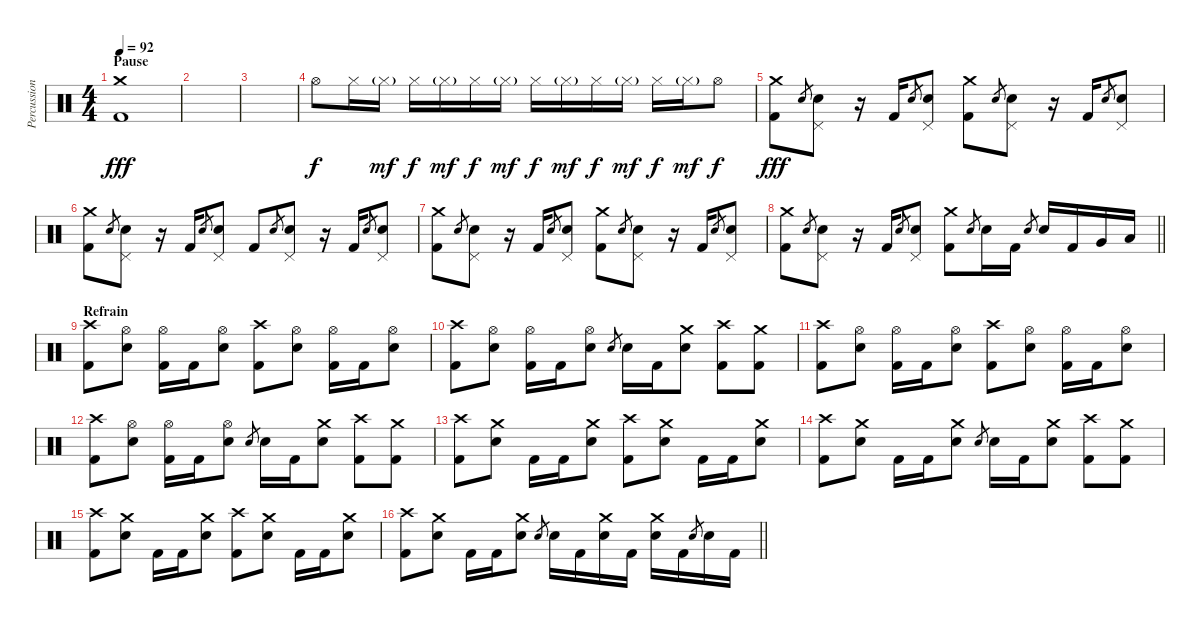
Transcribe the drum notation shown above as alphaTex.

\track ("Percussions" "Percussion") {instrument percussion}
\staff {score}
\articulation defaults
\ts (4 4)
\section ("" "Pause")
\tempo 92
\clef neutral
\ks c
("Crash medium (hit)" "Kick (hit) 2").1{dy fff} |
|
|
"Hi-Hat (open)".8{dy f} "Hi-Hat (closed)".16 "Hi-Hat (closed)"{g}.16{dy mf} "Hi-Hat (closed)".16{dy f} "Hi-Hat (closed)"{g}.16{dy mf} "Hi-Hat (closed)".16{dy f} "Hi-Hat (closed)"{g}.16{dy mf} "Hi-Hat (closed)".16{dy f} "Hi-Hat (closed)"{g}.16{dy mf} "Hi-Hat (closed)".16{dy f} "Hi-Hat (closed)"{g}.16{dy mf} "Hi-Hat (closed)".16{dy f} "Hi-Hat (closed)"{g}.16{dy mf} "Hi-Hat (open)".8{dy f} |
("Crash medium (hit)" "Kick (hit) 2").8{dy fff} "Electric Snare (hit)".8{gr} ("Electric Snare (hit)" "Pedal Hi-Hat (hit)").8 r.16 "Kick (hit) 2".16 "Electric Snare (hit)".8{gr} ("Electric Snare (hit)" "Pedal Hi-Hat (hit)").8 ("Crash medium (hit)" "Kick (hit) 2").8 "Electric Snare (hit)".8{gr} ("Electric Snare (hit)" "Pedal Hi-Hat (hit)").8 r.16 "Kick (hit) 2".16 "Electric Snare (hit)".8{gr} ("Electric Snare (hit)" "Pedal Hi-Hat (hit)").8 |
("Crash medium (hit)" "Kick (hit) 2").8 "Electric Snare (hit)".8{gr} ("Electric Snare (hit)" "Pedal Hi-Hat (hit)").8 r.16 "Kick (hit) 2".16 "Electric Snare (hit)".8{gr} ("Electric Snare (hit)" "Pedal Hi-Hat (hit)").8 "Kick (hit) 2".8 "Electric Snare (hit)".8{gr} ("Electric Snare (hit)" "Pedal Hi-Hat (hit)").8 r.16 "Kick (hit) 2".16 "Electric Snare (hit)".8{gr} ("Electric Snare (hit)" "Pedal Hi-Hat (hit)").8 |
("Crash medium (hit)" "Kick (hit) 2").8 "Electric Snare (hit)".8{gr} ("Electric Snare (hit)" "Pedal Hi-Hat (hit)").8 r.16 "Kick (hit) 2".16 "Electric Snare (hit)".8{gr} ("Electric Snare (hit)" "Pedal Hi-Hat (hit)").8 ("Crash medium (hit)" "Kick (hit) 2").8 "Electric Snare (hit)".8{gr} ("Electric Snare (hit)" "Pedal Hi-Hat (hit)").8 r.16 "Kick (hit) 2".16 "Electric Snare (hit)".8{gr} ("Electric Snare (hit)" "Pedal Hi-Hat (hit)").8 |
\barLineRight lightlight
("Crash medium (hit)" "Kick (hit) 2").8 "Electric Snare (hit)".8{gr} ("Electric Snare (hit)" "Pedal Hi-Hat (hit)").8 r.16 "Kick (hit) 2".16 "Electric Snare (hit)".8{gr} ("Electric Snare (hit)" "Pedal Hi-Hat (hit)").8 ("Crash medium (hit)" "Kick (hit) 2").8 "Electric Snare (hit)".8{gr} "Electric Snare (hit)".16 "Kick (hit) 2".16 "Electric Snare (hit)".8{gr} "Electric Snare (hit)".16 "Kick (hit) 2".16 "Very Low Tom (hit)".16 "Low Floor Tom (hit)".16 |
\section ("" "Refrain")
("Crash high (hit)" "Kick (hit) 2").8 ("Hi-Hat (open)" "Electric Snare (hit)").8 ("Hi-Hat (open)" "Kick (hit) 2").16 "Kick (hit) 2".16 ("Hi-Hat (open)" "Electric Snare (hit)").8 ("Crash high (hit)" "Kick (hit) 2").8 ("Hi-Hat (open)" "Electric Snare (hit)").8 ("Hi-Hat (open)" "Kick (hit) 2").16 "Kick (hit) 2".16 ("Hi-Hat (open)" "Electric Snare (hit)").8 |
("Crash high (hit)" "Kick (hit) 2").8 ("Hi-Hat (open)" "Electric Snare (hit)").8 ("Hi-Hat (open)" "Kick (hit) 2").16 "Kick (hit) 2".16 ("Hi-Hat (open)" "Electric Snare (hit)").8 "Electric Snare (hit)".8{gr} "Electric Snare (hit)".16 "Kick (hit) 2".16 ("Crash medium (hit)" "Electric Snare (hit)").8 ("Crash high (hit)" "Kick (hit) 2").8 ("Crash medium (hit)" "Kick (hit) 2").8 |
("Crash high (hit)" "Kick (hit) 2").8 ("Hi-Hat (open)" "Electric Snare (hit)").8 ("Hi-Hat (open)" "Kick (hit) 2").16 "Kick (hit) 2".16 ("Hi-Hat (open)" "Electric Snare (hit)").8 ("Crash high (hit)" "Kick (hit) 2").8 ("Hi-Hat (open)" "Electric Snare (hit)").8 ("Hi-Hat (open)" "Kick (hit) 2").16 "Kick (hit) 2".16 ("Hi-Hat (open)" "Electric Snare (hit)").8 |
("Crash high (hit)" "Kick (hit) 2").8 ("Hi-Hat (open)" "Electric Snare (hit)").8 ("Hi-Hat (open)" "Kick (hit) 2").16 "Kick (hit) 2".16 ("Hi-Hat (open)" "Electric Snare (hit)").8 "Electric Snare (hit)".8{gr} "Electric Snare (hit)".16 "Kick (hit) 2".16 ("Crash medium (hit)" "Electric Snare (hit)").8 ("Crash high (hit)" "Kick (hit) 2").8 ("Crash medium (hit)" "Kick (hit) 2").8 |
("Crash high (hit)" "Kick (hit) 2").8 ("Crash medium (hit)" "Electric Snare (hit)").8 "Kick (hit) 2".16 "Kick (hit) 2".16 ("Crash medium (hit)" "Electric Snare (hit)").8 ("Crash high (hit)" "Kick (hit) 2").8 ("Crash medium (hit)" "Electric Snare (hit)").8 "Kick (hit) 2".16 "Kick (hit) 2".16 ("Crash medium (hit)" "Electric Snare (hit)").8 |
("Crash high (hit)" "Kick (hit) 2").8 ("Crash medium (hit)" "Electric Snare (hit)").8 "Kick (hit) 2".16 "Kick (hit) 2".16 ("Crash medium (hit)" "Electric Snare (hit)").8 "Electric Snare (hit)".8{gr} "Electric Snare (hit)".16 "Kick (hit) 2".16 ("Crash medium (hit)" "Electric Snare (hit)").8 ("Crash high (hit)" "Kick (hit) 2").8 ("Crash medium (hit)" "Kick (hit) 2").8 |
("Crash high (hit)" "Kick (hit) 2").8 ("Crash medium (hit)" "Electric Snare (hit)").8 "Kick (hit) 2".16 "Kick (hit) 2".16 ("Crash medium (hit)" "Electric Snare (hit)").8 ("Crash high (hit)" "Kick (hit) 2").8 ("Crash medium (hit)" "Electric Snare (hit)").8 "Kick (hit) 2".16 "Kick (hit) 2".16 ("Crash medium (hit)" "Electric Snare (hit)").8 |
\barLineRight lightlight
("Crash high (hit)" "Kick (hit) 2").8 ("Crash medium (hit)" "Electric Snare (hit)").8 "Kick (hit) 2".16 "Kick (hit) 2".16 ("Crash medium (hit)" "Electric Snare (hit)").8 "Electric Snare (hit)".8{gr} "Electric Snare (hit)".16 "Kick (hit) 2".16 ("Crash medium (hit)" "Electric Snare (hit)").16 "Kick (hit) 2".16 ("Crash medium (hit)" "Electric Snare (hit)").16 "Kick (hit) 2".16 "Electric Snare (hit)".8{gr} "Electric Snare (hit)".16 "Kick (hit) 2".16
